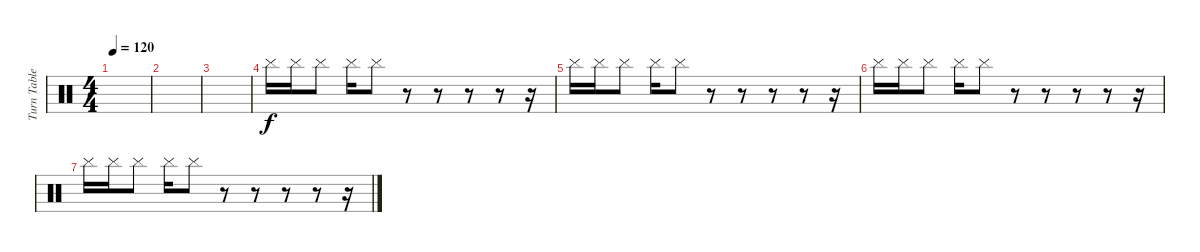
\track ("Turn Tables" "Turn Table") {instrument percussion}
\staff {score}
\articulation defaults
\ts (4 4)
\tempo 120
\clef neutral
\ks c
|
|
|
"Cymbal (hit)".16 "Cymbal (hit)".16 "Cymbal (hit)".8 "Cymbal (hit)".16 "Cymbal (hit)".8 r.8 r.8 r.8 r.8 r.16 |
"Cymbal (hit)".16 "Cymbal (hit)".16 "Cymbal (hit)".8 "Cymbal (hit)".16 "Cymbal (hit)".8 r.8 r.8 r.8 r.8 r.16 |
"Cymbal (hit)".16 "Cymbal (hit)".16 "Cymbal (hit)".8 "Cymbal (hit)".16 "Cymbal (hit)".8 r.8 r.8 r.8 r.8 r.16 |
"Cymbal (hit)".16 "Cymbal (hit)".16 "Cymbal (hit)".8 "Cymbal (hit)".16 "Cymbal (hit)".8 r.8 r.8 r.8 r.8 r.16
